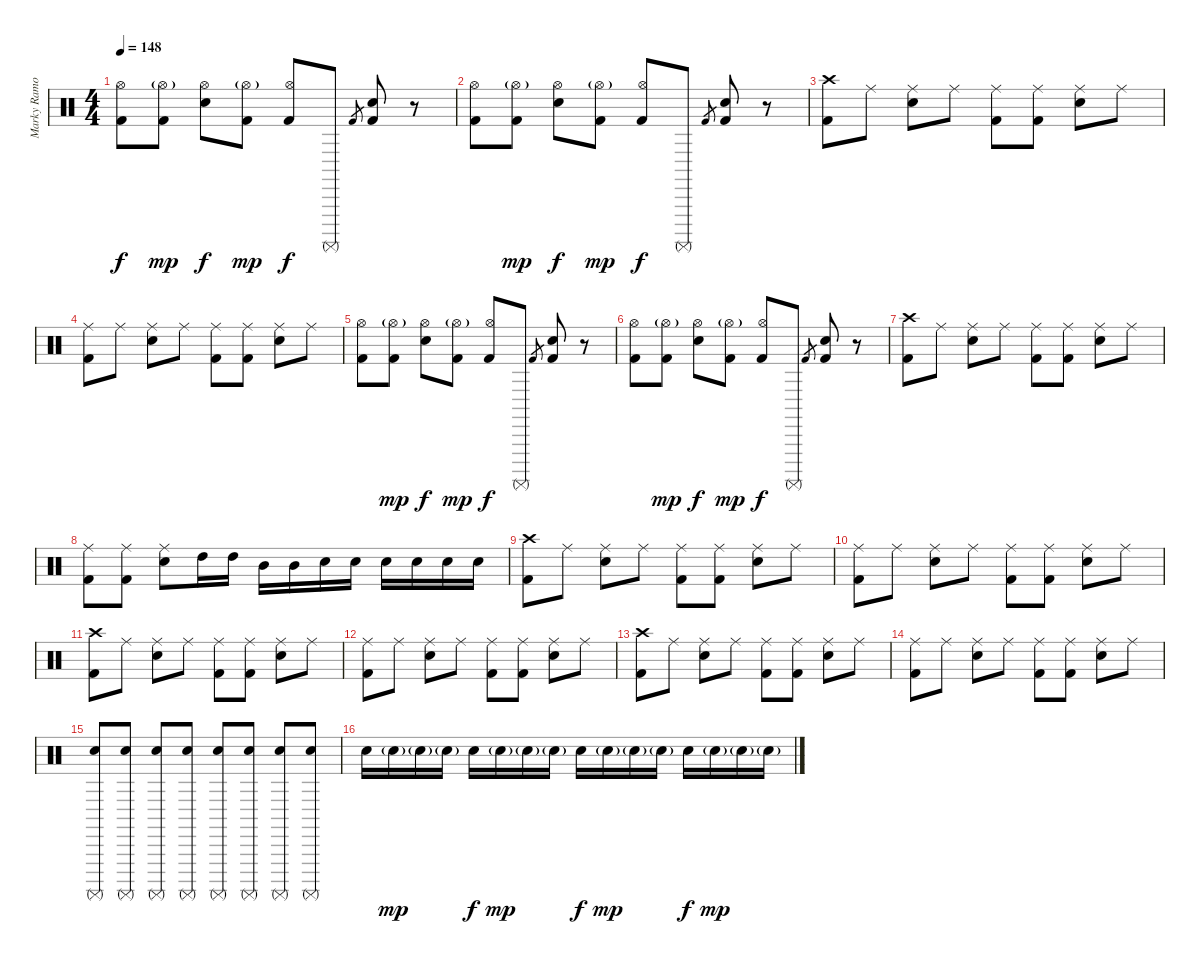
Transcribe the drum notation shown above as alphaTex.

\track ("Marky Ramone - Drums" "Marky Ramo") {instrument percussion}
\staff {score}
\articulation defaults
\ts (4 4)
\tempo 148
\clef neutral
\ks c
("Hi-Hat (open)" "Kick (hit) 2").8{dy f} ("Hi-Hat (open)"{g} "Kick (hit) 2").8{dy mp} ("Hi-Hat (open)" "Electric Snare (hit)").8{dy f} ("Hi-Hat (open)"{g} "Kick (hit) 2").8{dy mp} ("Hi-Hat (open)" "Kick (hit) 2").8{dy f} "Surdo (mute)".8 "Kick (hit) 2".8{gr} ("Electric Snare (hit)" "Kick (hit) 2").8{bd 480} r.8 |
("Hi-Hat (open)" "Kick (hit) 2").8 ("Hi-Hat (open)"{g} "Kick (hit) 2").8{dy mp} ("Hi-Hat (open)" "Electric Snare (hit)").8{dy f} ("Hi-Hat (open)"{g} "Kick (hit) 2").8{dy mp} ("Hi-Hat (open)" "Kick (hit) 2").8{dy f} "Surdo (mute)".8 "Kick (hit) 2".8{gr} ("Electric Snare (hit)" "Kick (hit) 2").8{bd 480} r.8 |
("Crash high (hit)" "Kick (hit) 2").8 "Ride (middle)".8 ("Ride (middle)" "Electric Snare (hit)").8 "Ride (middle)".8 ("Ride (middle)" "Kick (hit) 2").8 ("Ride (middle)" "Kick (hit) 2").8 ("Ride (middle)" "Electric Snare (hit)").8 "Ride (middle)".8 |
("Ride (middle)" "Kick (hit) 2").8 "Ride (middle)".8 ("Ride (middle)" "Electric Snare (hit)").8 "Ride (middle)".8 ("Ride (middle)" "Kick (hit) 2").8 ("Ride (middle)" "Kick (hit) 2").8 ("Ride (middle)" "Electric Snare (hit)").8 "Ride (middle)".8 |
("Hi-Hat (open)" "Kick (hit) 2").8 ("Hi-Hat (open)"{g} "Kick (hit) 2").8{dy mp} ("Hi-Hat (open)" "Electric Snare (hit)").8{dy f} ("Hi-Hat (open)"{g} "Kick (hit) 2").8{dy mp} ("Hi-Hat (open)" "Kick (hit) 2").8{dy f} "Surdo (mute)".8 "Kick (hit) 2".8{gr} ("Electric Snare (hit)" "Kick (hit) 2").8{bd 480} r.8 |
("Hi-Hat (open)" "Kick (hit) 2").8 ("Hi-Hat (open)"{g} "Kick (hit) 2").8{dy mp} ("Hi-Hat (open)" "Electric Snare (hit)").8{dy f} ("Hi-Hat (open)"{g} "Kick (hit) 2").8{dy mp} ("Hi-Hat (open)" "Kick (hit) 2").8{dy f} "Surdo (mute)".8 "Kick (hit) 2".8{gr} ("Electric Snare (hit)" "Kick (hit) 2").8{bd 480} r.8 |
("Crash high (hit)" "Kick (hit) 2").8 "Ride (middle)".8 ("Ride (middle)" "Electric Snare (hit)").8 "Ride (middle)".8 ("Ride (middle)" "Kick (hit) 2").8 ("Ride (middle)" "Kick (hit) 2").8 ("Ride (middle)" "Electric Snare (hit)").8 "Ride (middle)".8 |
("Ride (middle)" "Kick (hit) 2").8 ("Ride (middle)" "Kick (hit) 2").8 ("Ride (middle)" "Electric Snare (hit)").8 "High Tom (hit)".16 "High Tom (hit)".16 "Mid Tom (hit)".16 "Mid Tom (hit)".16 "Electric Snare (hit)".16 "Electric Snare (hit)".16 "Electric Snare (hit)".16 "Electric Snare (hit)".16 "Electric Snare (hit)".16 "Electric Snare (hit)".16 |
("Crash high (hit)" "Kick (hit) 2").8 "Ride (middle)".8 ("Ride (middle)" "Electric Snare (hit)").8 "Ride (middle)".8 ("Ride (middle)" "Kick (hit) 2").8 ("Ride (middle)" "Kick (hit) 2").8 ("Ride (middle)" "Electric Snare (hit)").8 "Ride (middle)".8 |
("Ride (middle)" "Kick (hit) 2").8 "Ride (middle)".8 ("Ride (middle)" "Electric Snare (hit)").8 "Ride (middle)".8 ("Ride (middle)" "Kick (hit) 2").8 ("Ride (middle)" "Kick (hit) 2").8 ("Ride (middle)" "Electric Snare (hit)").8 "Ride (middle)".8 |
("Crash high (hit)" "Kick (hit) 2").8 "Ride (middle)".8 ("Ride (middle)" "Electric Snare (hit)").8 "Ride (middle)".8 ("Ride (middle)" "Kick (hit) 2").8 ("Ride (middle)" "Kick (hit) 2").8 ("Ride (middle)" "Electric Snare (hit)").8 "Ride (middle)".8 |
("Ride (middle)" "Kick (hit) 2").8 "Ride (middle)".8 ("Ride (middle)" "Electric Snare (hit)").8 "Ride (middle)".8 ("Ride (middle)" "Kick (hit) 2").8 ("Ride (middle)" "Kick (hit) 2").8 ("Ride (middle)" "Electric Snare (hit)").8 "Ride (middle)".8 |
("Crash high (hit)" "Kick (hit) 2").8 "Ride (middle)".8 ("Ride (middle)" "Electric Snare (hit)").8 "Ride (middle)".8 ("Ride (middle)" "Kick (hit) 2").8 ("Ride (middle)" "Kick (hit) 2").8 ("Ride (middle)" "Electric Snare (hit)").8 "Ride (middle)".8 |
("Ride (middle)" "Kick (hit) 2").8 "Ride (middle)".8 ("Ride (middle)" "Electric Snare (hit)").8 "Ride (middle)".8 ("Ride (middle)" "Kick (hit) 2").8 ("Ride (middle)" "Kick (hit) 2").8 ("Ride (middle)" "Electric Snare (hit)").8 "Ride (middle)".8 |
("Surdo (mute)" "Electric Snare (hit)").8 ("Surdo (mute)" "Electric Snare (hit)").8 ("Surdo (mute)" "Electric Snare (hit)").8 ("Surdo (mute)" "Electric Snare (hit)").8 ("Surdo (mute)" "Electric Snare (hit)").8 ("Surdo (mute)" "Electric Snare (hit)").8 ("Surdo (mute)" "Electric Snare (hit)").8 ("Surdo (mute)" "Electric Snare (hit)").8 |
"Electric Snare (hit)".16 "Electric Snare (hit)"{g}.16{dy mp} "Electric Snare (hit)"{g}.16 "Electric Snare (hit)"{g}.16 "Electric Snare (hit)".16{dy f} "Electric Snare (hit)"{g}.16{dy mp} "Electric Snare (hit)"{g}.16 "Electric Snare (hit)"{g}.16 "Electric Snare (hit)".16{dy f} "Electric Snare (hit)"{g}.16{dy mp} "Electric Snare (hit)"{g}.16 "Electric Snare (hit)"{g}.16 "Electric Snare (hit)".16{dy f} "Electric Snare (hit)"{g}.16{dy mp} "Electric Snare (hit)"{g}.16 "Electric Snare (hit)"{g}.16
